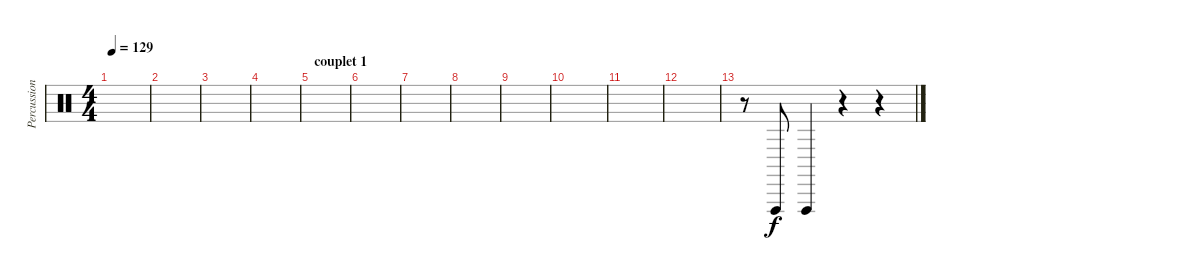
\track ("Percussions" "Percussion") {instrument percussion}
\staff {score}
\articulation defaults
\ts (4 4)
\tempo 129
\clef neutral
\ks c
|
|
|
|
\section ("" "couplet 1")
|
|
|
|
|
|
|
|
r.8 "Vibraslap (hit)".8 "Vibraslap (hit)".4 r.4 r.4
